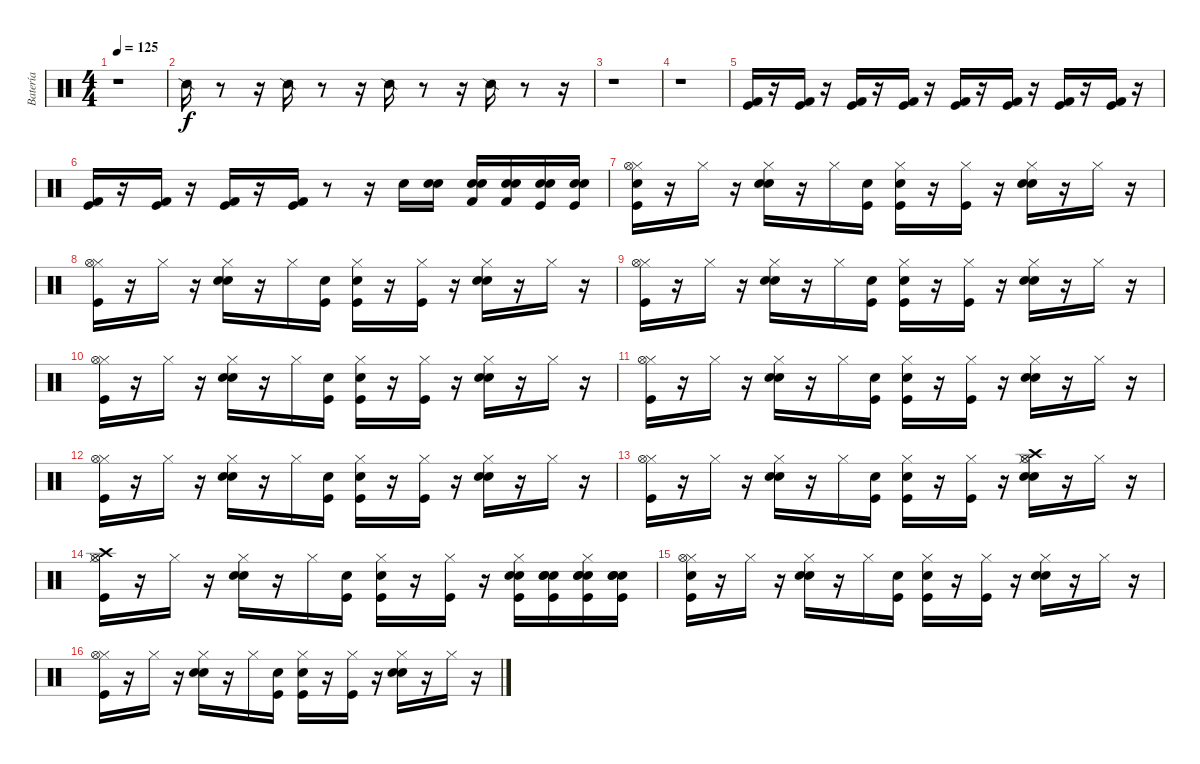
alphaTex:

\track ("Batería" "Batería") {instrument percussion}
\staff {score}
\articulation defaults
\ts (4 4)
\tempo 125
\clef neutral
\ks c
r.1{dy f} |
"Snare (side stick) 2".16 r.8 r.16 "Snare (side stick) 2".16 r.8 r.16 "Snare (side stick) 2".16 r.8 r.16 "Snare (side stick) 2".16 r.8 r.16 |
r.1 |
r.1 |
("Kick (hit) 2" "Kick (hit)").16 r.16 ("Kick (hit) 2" "Kick (hit)").16 r.16 ("Kick (hit) 2" "Kick (hit)").16 r.16 ("Kick (hit) 2" "Kick (hit)").16 r.16 ("Kick (hit) 2" "Kick (hit)").16 r.16 ("Kick (hit) 2" "Kick (hit)").16 r.16 ("Kick (hit) 2" "Kick (hit)").16 r.16 ("Kick (hit) 2" "Kick (hit)").16 r.16 |
("Kick (hit) 2" "Kick (hit)").16 r.16 ("Kick (hit) 2" "Kick (hit)").16 r.16 ("Kick (hit) 2" "Kick (hit)").16 r.16 ("Kick (hit) 2" "Kick (hit)").16 r.8 r.16 "Electric Snare (hit)".16 ("Snare (hit)" "Electric Snare (hit)").16 ("Snare (hit)" "Kick (hit) 2" "Electric Snare (hit)").16 ("Snare (hit)" "Kick (hit) 2" "Electric Snare (hit)").16 ("Snare (hit)" "Snare (hit) 2" "Kick (hit)").16 ("Snare (hit)" "Snare (hit) 2" "Kick (hit)").16 |
("Snare (hit)" "Hi-Hat (closed)" "Kick (hit)" "Hi-Hat (open)").16 r.16 "Hi-Hat (closed)".16 r.16 ("Snare (hit) 2" "Electric Snare (hit)" "Hi-Hat (closed)").16 r.16 "Hi-Hat (closed)".16 ("Snare (hit)" "Kick (hit)").16 ("Snare (hit)" "Hi-Hat (closed)" "Kick (hit)").16 r.16 ("Hi-Hat (closed)" "Kick (hit)").16 r.16 ("Hi-Hat (closed)" "Snare (hit) 2" "Electric Snare (hit)").16 r.16 "Hi-Hat (closed)".16 r.16 |
("Hi-Hat (closed)" "Kick (hit)" "Hi-Hat (open)").16 r.16 "Hi-Hat (closed)".16 r.16 ("Snare (hit) 2" "Electric Snare (hit)" "Hi-Hat (closed)").16 r.16 "Hi-Hat (closed)".16 ("Snare (hit)" "Kick (hit)").16 ("Snare (hit)" "Hi-Hat (closed)" "Kick (hit)").16 r.16 ("Hi-Hat (closed)" "Kick (hit)").16 r.16 ("Hi-Hat (closed)" "Snare (hit) 2" "Electric Snare (hit)").16 r.16 "Hi-Hat (closed)".16 r.16 |
("Kick (hit)" "Hi-Hat (closed)" "Hi-Hat (open)").16 r.16 "Hi-Hat (closed)".16 r.16 ("Snare (hit) 2" "Electric Snare (hit)" "Hi-Hat (closed)").16 r.16 "Hi-Hat (closed)".16 ("Snare (hit)" "Kick (hit)").16 ("Snare (hit)" "Kick (hit)" "Hi-Hat (closed)").16 r.16 ("Kick (hit)" "Hi-Hat (closed)").16 r.16 ("Snare (hit) 2" "Electric Snare (hit)" "Hi-Hat (closed)").16 r.16 "Hi-Hat (closed)".16 r.16 |
("Kick (hit)" "Hi-Hat (closed)" "Hi-Hat (open)").16 r.16 "Hi-Hat (closed)".16 r.16 ("Snare (hit) 2" "Electric Snare (hit)" "Hi-Hat (closed)").16 r.16 "Hi-Hat (closed)".16 ("Snare (hit)" "Kick (hit)").16 ("Snare (hit)" "Kick (hit)" "Hi-Hat (closed)").16 r.16 ("Kick (hit)" "Hi-Hat (closed)").16 r.16 ("Snare (hit) 2" "Electric Snare (hit)" "Hi-Hat (closed)").16 r.16 "Hi-Hat (closed)".16 r.16 |
("Kick (hit)" "Hi-Hat (closed)" "Hi-Hat (open)").16 r.16 "Hi-Hat (closed)".16 r.16 ("Snare (hit) 2" "Electric Snare (hit)" "Hi-Hat (closed)").16 r.16 "Hi-Hat (closed)".16 ("Snare (hit)" "Kick (hit)").16 ("Snare (hit)" "Kick (hit)" "Hi-Hat (closed)").16 r.16 ("Kick (hit)" "Hi-Hat (closed)").16 r.16 ("Snare (hit) 2" "Electric Snare (hit)" "Hi-Hat (closed)").16 r.16 "Hi-Hat (closed)".16 r.16 |
("Kick (hit)" "Hi-Hat (closed)" "Hi-Hat (open)").16 r.16 "Hi-Hat (closed)".16 r.16 ("Snare (hit) 2" "Electric Snare (hit)" "Hi-Hat (closed)").16 r.16 "Hi-Hat (closed)".16 ("Snare (hit)" "Kick (hit)").16 ("Snare (hit)" "Kick (hit)" "Hi-Hat (closed)").16 r.16 ("Kick (hit)" "Hi-Hat (closed)").16 r.16 ("Snare (hit) 2" "Electric Snare (hit)" "Hi-Hat (closed)").16 r.16 "Hi-Hat (closed)".16 r.16 |
("Kick (hit)" "Hi-Hat (closed)" "Hi-Hat (open)").16 r.16 "Hi-Hat (closed)".16 r.16 ("Electric Snare (hit)" "Snare (hit) 2" "Hi-Hat (closed)").16 r.16 "Hi-Hat (closed)".16 ("Snare (hit)" "Kick (hit)").16 ("Snare (hit)" "Kick (hit)" "Hi-Hat (closed)").16 r.16 ("Kick (hit)" "Hi-Hat (closed)").16 r.16 ("Hi-Hat (open)" "Crash high (hit)" "Snare (hit) 2" "Electric Snare (hit)" "Hi-Hat (closed)").16 r.16 "Hi-Hat (closed)".16 r.16 |
("Crash high (hit)" "Kick (hit)" "Hi-Hat (closed)" "Hi-Hat (open)").16 r.16 "Hi-Hat (closed)".16 r.16 ("Snare (hit) 2" "Electric Snare (hit)" "Hi-Hat (closed)").16 r.16 "Hi-Hat (closed)".16 ("Snare (hit)" "Kick (hit)").16 ("Snare (hit)" "Kick (hit)" "Hi-Hat (closed)").16 r.16 ("Kick (hit)" "Hi-Hat (closed)").16 r.16 ("Kick (hit)" "Snare (hit) 2" "Electric Snare (hit)" "Hi-Hat (closed)").16 ("Snare (hit)" "Electric Snare (hit)" "Snare (hit) 2" "Kick (hit)").16 ("Snare (hit)" "Snare (hit) 2" "Electric Snare (hit)" "Kick (hit)" "Hi-Hat (closed)").16 ("Snare (hit)" "Electric Snare (hit)" "Snare (hit) 2" "Kick (hit)").16 |
("Snare (hit)" "Hi-Hat (closed)" "Kick (hit)" "Hi-Hat (open)").16 r.16 "Hi-Hat (closed)".16 r.16 ("Snare (hit) 2" "Electric Snare (hit)" "Hi-Hat (closed)").16 r.16 "Hi-Hat (closed)".16 ("Snare (hit)" "Kick (hit)").16 ("Snare (hit)" "Hi-Hat (closed)" "Kick (hit)").16 r.16 ("Hi-Hat (closed)" "Kick (hit)").16 r.16 ("Hi-Hat (closed)" "Snare (hit) 2" "Electric Snare (hit)").16 r.16 "Hi-Hat (closed)".16 r.16 |
("Hi-Hat (closed)" "Kick (hit)" "Hi-Hat (open)").16 r.16 "Hi-Hat (closed)".16 r.16 ("Snare (hit) 2" "Electric Snare (hit)" "Hi-Hat (closed)").16 r.16 "Hi-Hat (closed)".16 ("Snare (hit)" "Kick (hit)").16 ("Snare (hit)" "Hi-Hat (closed)" "Kick (hit)").16 r.16 ("Hi-Hat (closed)" "Kick (hit)").16 r.16 ("Hi-Hat (closed)" "Snare (hit) 2" "Electric Snare (hit)").16 r.16 "Hi-Hat (closed)".16 r.16
